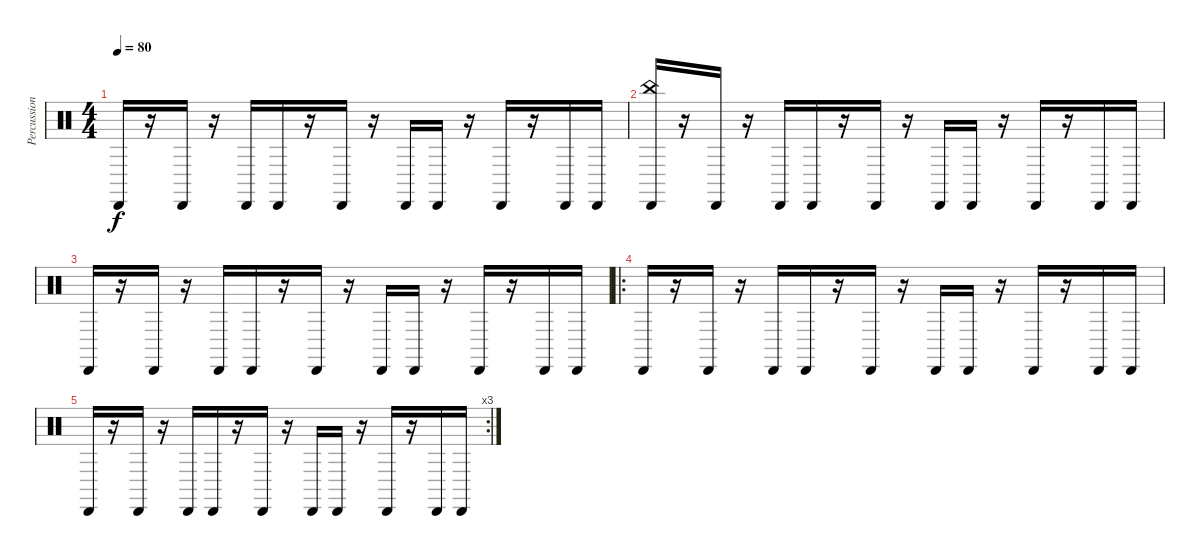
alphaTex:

\track ("Percussion" "Percussion") {instrument percussion}
\staff {score}
\articulation defaults
\ts (4 4)
\tempo 80
\clef neutral
\ks c "Cabasa (hit)".16{dy f}
r.16 "Cabasa (hit)".16 r.16 "Cabasa (hit)".16 "Cabasa (hit)".16 r.16 "Cabasa (hit)".16 r.16 "Cabasa (hit)".16 "Cabasa (hit)".16 r.16 "Cabasa (hit)".16 r.16 "Cabasa (hit)".16 "Cabasa (hit)".16 |
("Cabasa (hit)" "China (hit)").16 r.16 "Cabasa (hit)".16 r.16 "Cabasa (hit)".16 "Cabasa (hit)".16 r.16 "Cabasa (hit)".16 r.16 "Cabasa (hit)".16 "Cabasa (hit)".16 r.16 "Cabasa (hit)".16 r.16 "Cabasa (hit)".16 "Cabasa (hit)".16 |
"Cabasa (hit)".16 r.16 "Cabasa (hit)".16 r.16 "Cabasa (hit)".16 "Cabasa (hit)".16 r.16 "Cabasa (hit)".16 r.16 "Cabasa (hit)".16 "Cabasa (hit)".16 r.16 "Cabasa (hit)".16 r.16 "Cabasa (hit)".16 "Cabasa (hit)".16 |
\ro "Cabasa (hit)".16
r.16 "Cabasa (hit)".16 r.16 "Cabasa (hit)".16 "Cabasa (hit)".16 r.16 "Cabasa (hit)".16 r.16 "Cabasa (hit)".16 "Cabasa (hit)".16 r.16 "Cabasa (hit)".16 r.16 "Cabasa (hit)".16 "Cabasa (hit)".16 |
\rc 3 "Cabasa (hit)".16
r.16 "Cabasa (hit)".16 r.16 "Cabasa (hit)".16 "Cabasa (hit)".16 r.16 "Cabasa (hit)".16 r.16 "Cabasa (hit)".16 "Cabasa (hit)".16 r.16 "Cabasa (hit)".16 r.16 "Cabasa (hit)".16 "Cabasa (hit)".16
